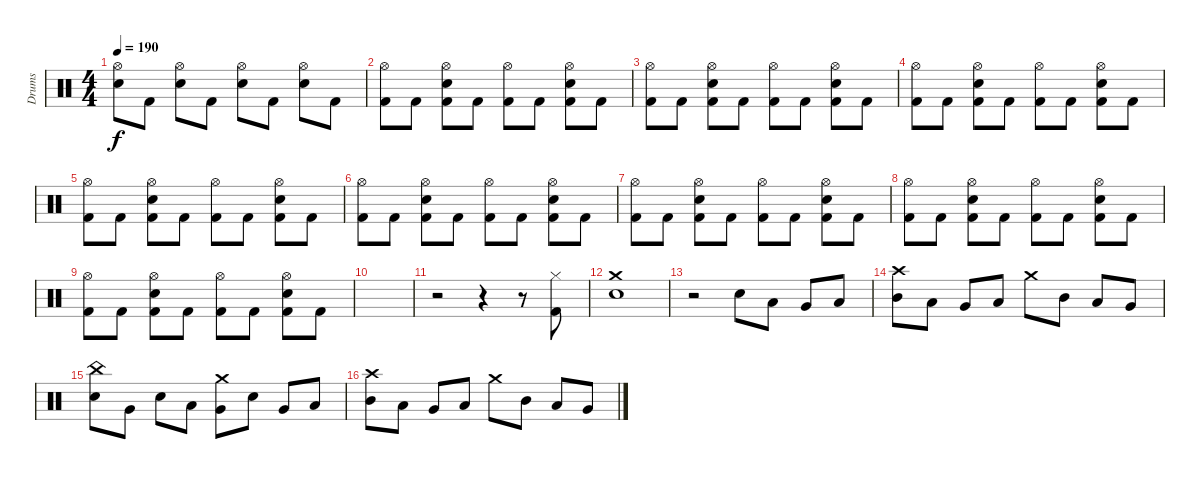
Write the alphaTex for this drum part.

\track ("Drums" "Drums") {instrument percussion}
\staff {score}
\articulation defaults
\ts (4 4)
\tempo 190
\clef neutral
\ks c
("Hi-Hat (open)" "Electric Snare (hit)").8{dy f} "Kick (hit) 2".8 ("Hi-Hat (open)" "Electric Snare (hit)").8 "Kick (hit) 2".8 ("Hi-Hat (open)" "Electric Snare (hit)").8 "Kick (hit) 2".8 ("Hi-Hat (open)" "Electric Snare (hit)").8 "Kick (hit) 2".8 |
("Hi-Hat (open)" "Kick (hit) 2").8 "Kick (hit) 2".8 ("Hi-Hat (open)" "Electric Snare (hit)" "Kick (hit) 2").8 "Kick (hit) 2".8 ("Hi-Hat (open)" "Kick (hit) 2").8 "Kick (hit) 2".8 ("Hi-Hat (open)" "Electric Snare (hit)" "Kick (hit) 2").8 "Kick (hit) 2".8 |
("Hi-Hat (open)" "Kick (hit) 2").8 "Kick (hit) 2".8 ("Hi-Hat (open)" "Electric Snare (hit)" "Kick (hit) 2").8 "Kick (hit) 2".8 ("Hi-Hat (open)" "Kick (hit) 2").8 "Kick (hit) 2".8 ("Hi-Hat (open)" "Electric Snare (hit)" "Kick (hit) 2").8 "Kick (hit) 2".8 |
("Hi-Hat (open)" "Kick (hit) 2").8 "Kick (hit) 2".8 ("Hi-Hat (open)" "Electric Snare (hit)" "Kick (hit) 2").8 "Kick (hit) 2".8 ("Hi-Hat (open)" "Kick (hit) 2").8 "Kick (hit) 2".8 ("Hi-Hat (open)" "Electric Snare (hit)" "Kick (hit) 2").8 "Kick (hit) 2".8 |
("Hi-Hat (open)" "Kick (hit) 2").8 "Kick (hit) 2".8 ("Hi-Hat (open)" "Electric Snare (hit)" "Kick (hit) 2").8 "Kick (hit) 2".8 ("Hi-Hat (open)" "Kick (hit) 2").8 "Kick (hit) 2".8 ("Hi-Hat (open)" "Electric Snare (hit)" "Kick (hit) 2").8 "Kick (hit) 2".8 |
("Hi-Hat (open)" "Kick (hit) 2").8 "Kick (hit) 2".8 ("Hi-Hat (open)" "Electric Snare (hit)" "Kick (hit) 2").8 "Kick (hit) 2".8 ("Hi-Hat (open)" "Kick (hit) 2").8 "Kick (hit) 2".8 ("Hi-Hat (open)" "Electric Snare (hit)" "Kick (hit) 2").8 "Kick (hit) 2".8 |
("Hi-Hat (open)" "Kick (hit) 2").8 "Kick (hit) 2".8 ("Hi-Hat (open)" "Electric Snare (hit)" "Kick (hit) 2").8 "Kick (hit) 2".8 ("Hi-Hat (open)" "Kick (hit) 2").8 "Kick (hit) 2".8 ("Hi-Hat (open)" "Electric Snare (hit)" "Kick (hit) 2").8 "Kick (hit) 2".8 |
("Hi-Hat (open)" "Kick (hit) 2").8 "Kick (hit) 2".8 ("Hi-Hat (open)" "Electric Snare (hit)" "Kick (hit) 2").8 "Kick (hit) 2".8 ("Hi-Hat (open)" "Kick (hit) 2").8 "Kick (hit) 2".8 ("Hi-Hat (open)" "Electric Snare (hit)" "Kick (hit) 2").8 "Kick (hit) 2".8 |
("Hi-Hat (open)" "Kick (hit) 2").8 "Kick (hit) 2".8 ("Hi-Hat (open)" "Electric Snare (hit)" "Kick (hit) 2").8 "Kick (hit) 2".8 ("Hi-Hat (open)" "Kick (hit) 2").8 "Kick (hit) 2".8 ("Hi-Hat (open)" "Electric Snare (hit)" "Kick (hit) 2").8 "Kick (hit) 2".8 |
|
r.2 r.4 r.8 ("Hi-Hat (closed)" "Kick (hit) 2").8 |
("Crash medium (hit)" "Electric Snare (hit)").1 |
r.2 "Electric Snare (hit)".8 "Low Tom (hit)".8 "Very Low Tom (hit)".8 "Low Floor Tom (hit)".8 |
("Crash high (hit)" "Mid Tom (hit)").8 "Low Tom (hit)".8 "Very Low Tom (hit)".8 "Low Floor Tom (hit)".8 "Crash medium (hit)".8 "Mid Tom (hit)".8 "Low Tom (hit)".8 "Very Low Tom (hit)".8 |
("China (hit)" "Electric Snare (hit)").8 "Very Low Tom (hit)".8 "Electric Snare (hit)".8 "Low Tom (hit)".8 ("Crash medium (hit)" "Very Low Tom (hit)").8 "Electric Snare (hit)".8 "Very Low Tom (hit)".8 "Low Floor Tom (hit)".8 |
("Crash high (hit)" "Mid Tom (hit)").8 "Low Tom (hit)".8 "Very Low Tom (hit)".8 "Low Floor Tom (hit)".8 "Crash medium (hit)".8 "Mid Tom (hit)".8 "Low Tom (hit)".8 "Very Low Tom (hit)".8
